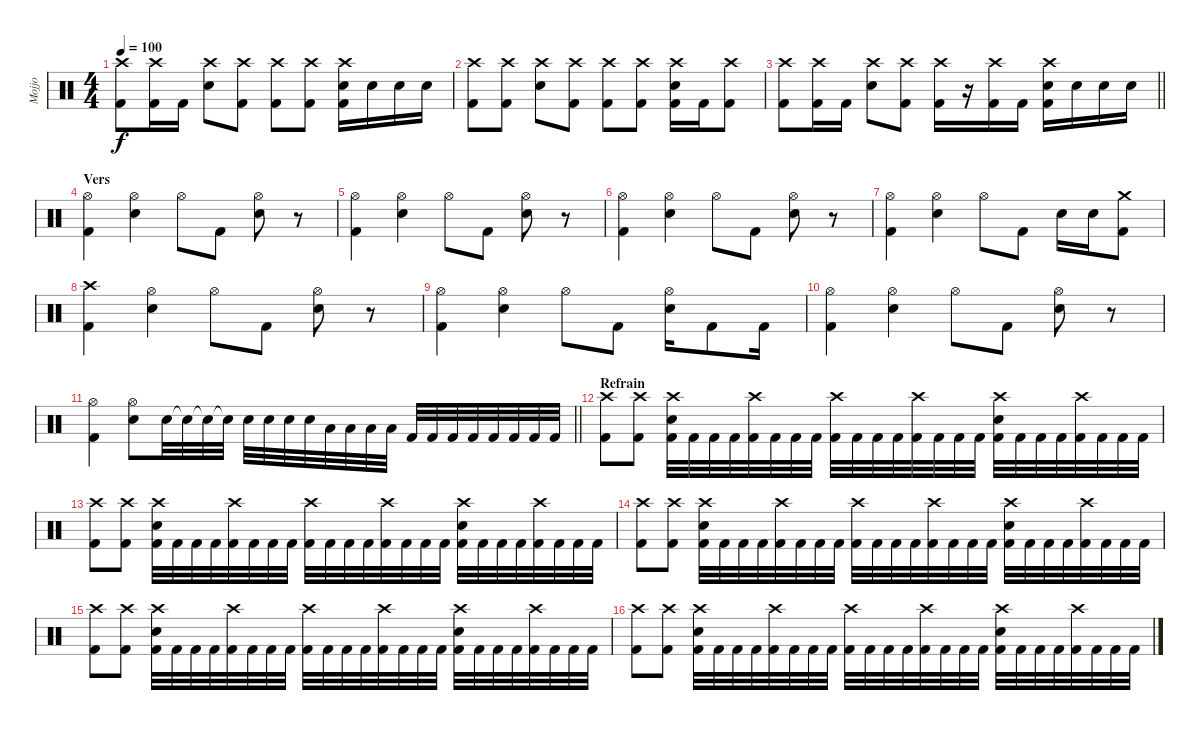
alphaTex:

\track ("Mojjo" "Mojjo") {instrument percussion}
\staff {score}
\articulation defaults
\ts (4 4)
\tempo 100
\clef neutral
\ks c
("Crash high (hit)" "Kick (hit) 2").8{dy f} ("Crash high (hit)" "Kick (hit) 2").16 "Kick (hit) 2".16 ("Crash high (hit)" "Electric Snare (hit)").8 ("Crash high (hit)" "Kick (hit) 2").8 ("Crash high (hit)" "Kick (hit) 2").8 ("Crash high (hit)" "Kick (hit) 2").8 ("Crash high (hit)" "Electric Snare (hit)" "Kick (hit) 2").16 "Electric Snare (hit)".16 "Electric Snare (hit)".16 "Electric Snare (hit)".16 |
("Crash high (hit)" "Kick (hit) 2").8 ("Crash high (hit)" "Kick (hit) 2").8 ("Crash high (hit)" "Electric Snare (hit)").8 ("Crash high (hit)" "Kick (hit) 2").8 ("Crash high (hit)" "Kick (hit) 2").8 ("Crash high (hit)" "Kick (hit) 2").8 ("Crash high (hit)" "Electric Snare (hit)" "Kick (hit) 2").16 "Kick (hit) 2".16 ("Crash high (hit)" "Kick (hit) 2").8 |
\barLineRight lightlight
("Crash high (hit)" "Kick (hit) 2").8 ("Crash high (hit)" "Kick (hit) 2").16 "Kick (hit) 2".16 ("Crash high (hit)" "Electric Snare (hit)").8 ("Crash high (hit)" "Kick (hit) 2").8 ("Crash high (hit)" "Kick (hit) 2").16 r.16 ("Crash high (hit)" "Kick (hit) 2").16 "Kick (hit) 2".16 ("Crash high (hit)" "Electric Snare (hit)" "Kick (hit) 2").16 "Electric Snare (hit)".16 "Electric Snare (hit)".16 "Electric Snare (hit)".16 |
\section ("" "Vers")
("Hi-Hat (open)" "Kick (hit) 2").4 ("Hi-Hat (open)" "Electric Snare (hit)").4 "Hi-Hat (open)".8 "Kick (hit) 2".8 ("Hi-Hat (open)" "Electric Snare (hit)").8 r.8 |
("Hi-Hat (open)" "Kick (hit) 2").4 ("Hi-Hat (open)" "Electric Snare (hit)").4 "Hi-Hat (open)".8 "Kick (hit) 2".8 ("Hi-Hat (open)" "Electric Snare (hit)").8 r.8 |
("Hi-Hat (open)" "Kick (hit) 2").4 ("Hi-Hat (open)" "Electric Snare (hit)").4 "Hi-Hat (open)".8 "Kick (hit) 2".8 ("Hi-Hat (open)" "Electric Snare (hit)").8 r.8 |
("Hi-Hat (open)" "Kick (hit) 2").4 ("Hi-Hat (open)" "Electric Snare (hit)").4 "Hi-Hat (open)".8 "Kick (hit) 2".8 "Electric Snare (hit)".16 "Electric Snare (hit)".16 ("Crash medium (hit)" "Kick (hit) 2").8 |
("Crash high (hit)" "Kick (hit) 2").4 ("Hi-Hat (open)" "Electric Snare (hit)").4 "Hi-Hat (open)".8 "Kick (hit) 2".8 ("Hi-Hat (open)" "Electric Snare (hit)").8 r.8 |
("Hi-Hat (open)" "Kick (hit) 2").4 ("Hi-Hat (open)" "Electric Snare (hit)").4 "Hi-Hat (open)".8 "Kick (hit) 2".8 ("Hi-Hat (open)" "Electric Snare (hit)").16 "Kick (hit) 2".8 "Kick (hit) 2".16 |
("Hi-Hat (open)" "Kick (hit) 2").4 ("Hi-Hat (open)" "Electric Snare (hit)").4 "Hi-Hat (open)".8 "Kick (hit) 2".8 ("Hi-Hat (open)" "Electric Snare (hit)").8 r.8 |
\barLineRight lightlight
("Hi-Hat (open)" "Kick (hit) 2").4 ("Hi-Hat (open)" "Electric Snare (hit)").8 "Electric Snare (hit)".32 "Electric Snare (hit)"{t}.32 "Electric Snare (hit)"{t}.32 "Electric Snare (hit)"{t}.32 "Electric Snare (hit)".32 "Electric Snare (hit)".32 "Electric Snare (hit)".32 "Electric Snare (hit)".32 "Low Tom (hit)".32 "Low Tom (hit)".32 "Low Tom (hit)".32 "Low Tom (hit)".32 "Kick (hit) 2".32 "Kick (hit) 2".32 "Kick (hit) 2".32 "Kick (hit) 2".32 "Kick (hit) 2".32 "Kick (hit) 2".32 "Kick (hit) 2".32 "Kick (hit) 2".32 |
\section ("" "Refrain")
("Crash high (hit)" "Kick (hit) 2").8 ("Crash high (hit)" "Kick (hit) 2").8 ("Crash high (hit)" "Electric Snare (hit)" "Kick (hit) 2").32 "Kick (hit) 2".32 "Kick (hit) 2".32 "Kick (hit) 2".32 ("Crash high (hit)" "Kick (hit) 2").32 "Kick (hit) 2".32 "Kick (hit) 2".32 "Kick (hit) 2".32 ("Crash high (hit)" "Kick (hit) 2").32 "Kick (hit) 2".32 "Kick (hit) 2".32 "Kick (hit) 2".32 ("Crash high (hit)" "Kick (hit) 2").32 "Kick (hit) 2".32 "Kick (hit) 2".32 "Kick (hit) 2".32 ("Crash high (hit)" "Electric Snare (hit)" "Kick (hit) 2").32 "Kick (hit) 2".32 "Kick (hit) 2".32 "Kick (hit) 2".32 ("Crash high (hit)" "Kick (hit) 2").32 "Kick (hit) 2".32 "Kick (hit) 2".32 "Kick (hit) 2".32 |
("Crash high (hit)" "Kick (hit) 2").8 ("Crash high (hit)" "Kick (hit) 2").8 ("Crash high (hit)" "Electric Snare (hit)" "Kick (hit) 2").32 "Kick (hit) 2".32 "Kick (hit) 2".32 "Kick (hit) 2".32 ("Crash high (hit)" "Kick (hit) 2").32 "Kick (hit) 2".32 "Kick (hit) 2".32 "Kick (hit) 2".32 ("Crash high (hit)" "Kick (hit) 2").32 "Kick (hit) 2".32 "Kick (hit) 2".32 "Kick (hit) 2".32 ("Crash high (hit)" "Kick (hit) 2").32 "Kick (hit) 2".32 "Kick (hit) 2".32 "Kick (hit) 2".32 ("Crash high (hit)" "Electric Snare (hit)" "Kick (hit) 2").32 "Kick (hit) 2".32 "Kick (hit) 2".32 "Kick (hit) 2".32 ("Crash high (hit)" "Kick (hit) 2").32 "Kick (hit) 2".32 "Kick (hit) 2".32 "Kick (hit) 2".32 |
("Crash high (hit)" "Kick (hit) 2").8 ("Crash high (hit)" "Kick (hit) 2").8 ("Crash high (hit)" "Electric Snare (hit)" "Kick (hit) 2").32 "Kick (hit) 2".32 "Kick (hit) 2".32 "Kick (hit) 2".32 ("Crash high (hit)" "Kick (hit) 2").32 "Kick (hit) 2".32 "Kick (hit) 2".32 "Kick (hit) 2".32 ("Crash high (hit)" "Kick (hit) 2").32 "Kick (hit) 2".32 "Kick (hit) 2".32 "Kick (hit) 2".32 ("Crash high (hit)" "Kick (hit) 2").32 "Kick (hit) 2".32 "Kick (hit) 2".32 "Kick (hit) 2".32 ("Crash high (hit)" "Electric Snare (hit)" "Kick (hit) 2").32 "Kick (hit) 2".32 "Kick (hit) 2".32 "Kick (hit) 2".32 ("Crash high (hit)" "Kick (hit) 2").32 "Kick (hit) 2".32 "Kick (hit) 2".32 "Kick (hit) 2".32 |
("Crash high (hit)" "Kick (hit) 2").8 ("Crash high (hit)" "Kick (hit) 2").8 ("Crash high (hit)" "Electric Snare (hit)" "Kick (hit) 2").32 "Kick (hit) 2".32 "Kick (hit) 2".32 "Kick (hit) 2".32 ("Crash high (hit)" "Kick (hit) 2").32 "Kick (hit) 2".32 "Kick (hit) 2".32 "Kick (hit) 2".32 ("Crash high (hit)" "Kick (hit) 2").32 "Kick (hit) 2".32 "Kick (hit) 2".32 "Kick (hit) 2".32 ("Crash high (hit)" "Kick (hit) 2").32 "Kick (hit) 2".32 "Kick (hit) 2".32 "Kick (hit) 2".32 ("Crash high (hit)" "Electric Snare (hit)" "Kick (hit) 2").32 "Kick (hit) 2".32 "Kick (hit) 2".32 "Kick (hit) 2".32 ("Crash high (hit)" "Kick (hit) 2").32 "Kick (hit) 2".32 "Kick (hit) 2".32 "Kick (hit) 2".32 |
("Crash high (hit)" "Kick (hit) 2").8 ("Crash high (hit)" "Kick (hit) 2").8 ("Crash high (hit)" "Electric Snare (hit)" "Kick (hit) 2").32 "Kick (hit) 2".32 "Kick (hit) 2".32 "Kick (hit) 2".32 ("Crash high (hit)" "Kick (hit) 2").32 "Kick (hit) 2".32 "Kick (hit) 2".32 "Kick (hit) 2".32 ("Crash high (hit)" "Kick (hit) 2").32 "Kick (hit) 2".32 "Kick (hit) 2".32 "Kick (hit) 2".32 ("Crash high (hit)" "Kick (hit) 2").32 "Kick (hit) 2".32 "Kick (hit) 2".32 "Kick (hit) 2".32 ("Crash high (hit)" "Electric Snare (hit)" "Kick (hit) 2").32 "Kick (hit) 2".32 "Kick (hit) 2".32 "Kick (hit) 2".32 ("Crash high (hit)" "Kick (hit) 2").32 "Kick (hit) 2".32 "Kick (hit) 2".32 "Kick (hit) 2".32
